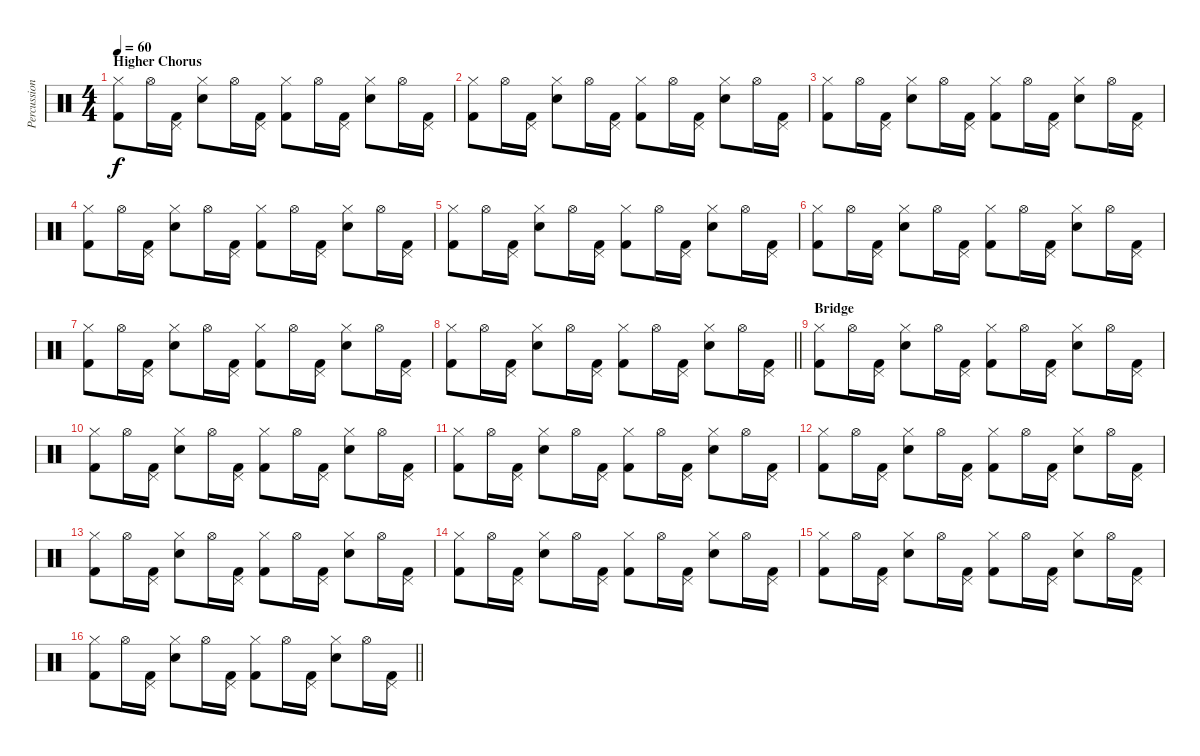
\track ("Percussion" "Percussion") {instrument percussion}
\staff {score}
\articulation defaults
\ts (4 4)
\section ("" "Higher Chorus")
\tempo 60
\clef neutral
\ks c
("Hi-Hat (closed)" "Kick (hit) 2").8{dy f} "Hi-Hat (open)".16 ("Pedal Hi-Hat (hit)" "Kick (hit) 2").16 ("Hi-Hat (closed)" "Electric Snare (hit)").8 "Hi-Hat (open)".16 ("Pedal Hi-Hat (hit)" "Kick (hit) 2").16 ("Hi-Hat (closed)" "Kick (hit) 2").8 "Hi-Hat (open)".16 ("Pedal Hi-Hat (hit)" "Kick (hit) 2").16 ("Hi-Hat (closed)" "Electric Snare (hit)").8 "Hi-Hat (open)".16 ("Pedal Hi-Hat (hit)" "Kick (hit) 2").16 |
("Hi-Hat (closed)" "Kick (hit) 2").8 "Hi-Hat (open)".16 ("Pedal Hi-Hat (hit)" "Kick (hit) 2").16 ("Hi-Hat (closed)" "Electric Snare (hit)").8 "Hi-Hat (open)".16 ("Pedal Hi-Hat (hit)" "Kick (hit) 2").16 ("Hi-Hat (closed)" "Kick (hit) 2").8 "Hi-Hat (open)".16 ("Pedal Hi-Hat (hit)" "Kick (hit) 2").16 ("Hi-Hat (closed)" "Electric Snare (hit)").8 "Hi-Hat (open)".16 ("Pedal Hi-Hat (hit)" "Kick (hit) 2").16 |
("Hi-Hat (closed)" "Kick (hit) 2").8 "Hi-Hat (open)".16 ("Pedal Hi-Hat (hit)" "Kick (hit) 2").16 ("Hi-Hat (closed)" "Electric Snare (hit)").8 "Hi-Hat (open)".16 ("Pedal Hi-Hat (hit)" "Kick (hit) 2").16 ("Hi-Hat (closed)" "Kick (hit) 2").8 "Hi-Hat (open)".16 ("Pedal Hi-Hat (hit)" "Kick (hit) 2").16 ("Hi-Hat (closed)" "Electric Snare (hit)").8 "Hi-Hat (open)".16 ("Pedal Hi-Hat (hit)" "Kick (hit) 2").16 |
("Hi-Hat (closed)" "Kick (hit) 2").8 "Hi-Hat (open)".16 ("Pedal Hi-Hat (hit)" "Kick (hit) 2").16 ("Hi-Hat (closed)" "Electric Snare (hit)").8 "Hi-Hat (open)".16 ("Pedal Hi-Hat (hit)" "Kick (hit) 2").16 ("Hi-Hat (closed)" "Kick (hit) 2").8 "Hi-Hat (open)".16 ("Pedal Hi-Hat (hit)" "Kick (hit) 2").16 ("Hi-Hat (closed)" "Electric Snare (hit)").8 "Hi-Hat (open)".16 ("Pedal Hi-Hat (hit)" "Kick (hit) 2").16 |
("Hi-Hat (closed)" "Kick (hit) 2").8 "Hi-Hat (open)".16 ("Pedal Hi-Hat (hit)" "Kick (hit) 2").16 ("Hi-Hat (closed)" "Electric Snare (hit)").8 "Hi-Hat (open)".16 ("Pedal Hi-Hat (hit)" "Kick (hit) 2").16 ("Hi-Hat (closed)" "Kick (hit) 2").8 "Hi-Hat (open)".16 ("Pedal Hi-Hat (hit)" "Kick (hit) 2").16 ("Hi-Hat (closed)" "Electric Snare (hit)").8 "Hi-Hat (open)".16 ("Pedal Hi-Hat (hit)" "Kick (hit) 2").16 |
("Hi-Hat (closed)" "Kick (hit) 2").8 "Hi-Hat (open)".16 ("Pedal Hi-Hat (hit)" "Kick (hit) 2").16 ("Hi-Hat (closed)" "Electric Snare (hit)").8 "Hi-Hat (open)".16 ("Pedal Hi-Hat (hit)" "Kick (hit) 2").16 ("Hi-Hat (closed)" "Kick (hit) 2").8 "Hi-Hat (open)".16 ("Pedal Hi-Hat (hit)" "Kick (hit) 2").16 ("Hi-Hat (closed)" "Electric Snare (hit)").8 "Hi-Hat (open)".16 ("Pedal Hi-Hat (hit)" "Kick (hit) 2").16 |
("Hi-Hat (closed)" "Kick (hit) 2").8 "Hi-Hat (open)".16 ("Pedal Hi-Hat (hit)" "Kick (hit) 2").16 ("Hi-Hat (closed)" "Electric Snare (hit)").8 "Hi-Hat (open)".16 ("Pedal Hi-Hat (hit)" "Kick (hit) 2").16 ("Hi-Hat (closed)" "Kick (hit) 2").8 "Hi-Hat (open)".16 ("Pedal Hi-Hat (hit)" "Kick (hit) 2").16 ("Hi-Hat (closed)" "Electric Snare (hit)").8 "Hi-Hat (open)".16 ("Pedal Hi-Hat (hit)" "Kick (hit) 2").16 |
\barLineRight lightlight
("Hi-Hat (closed)" "Kick (hit) 2").8 "Hi-Hat (open)".16 ("Pedal Hi-Hat (hit)" "Kick (hit) 2").16 ("Hi-Hat (closed)" "Electric Snare (hit)").8 "Hi-Hat (open)".16 ("Pedal Hi-Hat (hit)" "Kick (hit) 2").16 ("Hi-Hat (closed)" "Kick (hit) 2").8 "Hi-Hat (open)".16 ("Pedal Hi-Hat (hit)" "Kick (hit) 2").16 ("Hi-Hat (closed)" "Electric Snare (hit)").8 "Hi-Hat (open)".16 ("Pedal Hi-Hat (hit)" "Kick (hit) 2").16 |
\section ("" "Bridge")
("Hi-Hat (closed)" "Kick (hit) 2").8 "Hi-Hat (open)".16 ("Pedal Hi-Hat (hit)" "Kick (hit) 2").16 ("Hi-Hat (closed)" "Electric Snare (hit)").8 "Hi-Hat (open)".16 ("Pedal Hi-Hat (hit)" "Kick (hit) 2").16 ("Hi-Hat (closed)" "Kick (hit) 2").8 "Hi-Hat (open)".16 ("Pedal Hi-Hat (hit)" "Kick (hit) 2").16 ("Hi-Hat (closed)" "Electric Snare (hit)").8 "Hi-Hat (open)".16 ("Pedal Hi-Hat (hit)" "Kick (hit) 2").16 |
("Hi-Hat (closed)" "Kick (hit) 2").8 "Hi-Hat (open)".16 ("Pedal Hi-Hat (hit)" "Kick (hit) 2").16 ("Hi-Hat (closed)" "Electric Snare (hit)").8 "Hi-Hat (open)".16 ("Pedal Hi-Hat (hit)" "Kick (hit) 2").16 ("Hi-Hat (closed)" "Kick (hit) 2").8 "Hi-Hat (open)".16 ("Pedal Hi-Hat (hit)" "Kick (hit) 2").16 ("Hi-Hat (closed)" "Electric Snare (hit)").8 "Hi-Hat (open)".16 ("Pedal Hi-Hat (hit)" "Kick (hit) 2").16 |
("Hi-Hat (closed)" "Kick (hit) 2").8 "Hi-Hat (open)".16 ("Pedal Hi-Hat (hit)" "Kick (hit) 2").16 ("Hi-Hat (closed)" "Electric Snare (hit)").8 "Hi-Hat (open)".16 ("Pedal Hi-Hat (hit)" "Kick (hit) 2").16 ("Hi-Hat (closed)" "Kick (hit) 2").8 "Hi-Hat (open)".16 ("Pedal Hi-Hat (hit)" "Kick (hit) 2").16 ("Hi-Hat (closed)" "Electric Snare (hit)").8 "Hi-Hat (open)".16 ("Pedal Hi-Hat (hit)" "Kick (hit) 2").16 |
("Hi-Hat (closed)" "Kick (hit) 2").8 "Hi-Hat (open)".16 ("Pedal Hi-Hat (hit)" "Kick (hit) 2").16 ("Hi-Hat (closed)" "Electric Snare (hit)").8 "Hi-Hat (open)".16 ("Pedal Hi-Hat (hit)" "Kick (hit) 2").16 ("Hi-Hat (closed)" "Kick (hit) 2").8 "Hi-Hat (open)".16 ("Pedal Hi-Hat (hit)" "Kick (hit) 2").16 ("Hi-Hat (closed)" "Electric Snare (hit)").8 "Hi-Hat (open)".16 ("Pedal Hi-Hat (hit)" "Kick (hit) 2").16 |
("Hi-Hat (closed)" "Kick (hit) 2").8 "Hi-Hat (open)".16 ("Pedal Hi-Hat (hit)" "Kick (hit) 2").16 ("Hi-Hat (closed)" "Electric Snare (hit)").8 "Hi-Hat (open)".16 ("Pedal Hi-Hat (hit)" "Kick (hit) 2").16 ("Hi-Hat (closed)" "Kick (hit) 2").8 "Hi-Hat (open)".16 ("Pedal Hi-Hat (hit)" "Kick (hit) 2").16 ("Hi-Hat (closed)" "Electric Snare (hit)").8 "Hi-Hat (open)".16 ("Pedal Hi-Hat (hit)" "Kick (hit) 2").16 |
("Hi-Hat (closed)" "Kick (hit) 2").8 "Hi-Hat (open)".16 ("Pedal Hi-Hat (hit)" "Kick (hit) 2").16 ("Hi-Hat (closed)" "Electric Snare (hit)").8 "Hi-Hat (open)".16 ("Pedal Hi-Hat (hit)" "Kick (hit) 2").16 ("Hi-Hat (closed)" "Kick (hit) 2").8 "Hi-Hat (open)".16 ("Pedal Hi-Hat (hit)" "Kick (hit) 2").16 ("Hi-Hat (closed)" "Electric Snare (hit)").8 "Hi-Hat (open)".16 ("Pedal Hi-Hat (hit)" "Kick (hit) 2").16 |
("Hi-Hat (closed)" "Kick (hit) 2").8 "Hi-Hat (open)".16 ("Pedal Hi-Hat (hit)" "Kick (hit) 2").16 ("Hi-Hat (closed)" "Electric Snare (hit)").8 "Hi-Hat (open)".16 ("Pedal Hi-Hat (hit)" "Kick (hit) 2").16 ("Hi-Hat (closed)" "Kick (hit) 2").8 "Hi-Hat (open)".16 ("Pedal Hi-Hat (hit)" "Kick (hit) 2").16 ("Hi-Hat (closed)" "Electric Snare (hit)").8 "Hi-Hat (open)".16 ("Pedal Hi-Hat (hit)" "Kick (hit) 2").16 |
\barLineRight lightlight
("Hi-Hat (closed)" "Kick (hit) 2").8 "Hi-Hat (open)".16 ("Pedal Hi-Hat (hit)" "Kick (hit) 2").16 ("Hi-Hat (closed)" "Electric Snare (hit)").8 "Hi-Hat (open)".16 ("Pedal Hi-Hat (hit)" "Kick (hit) 2").16 ("Hi-Hat (closed)" "Kick (hit) 2").8 "Hi-Hat (open)".16 ("Pedal Hi-Hat (hit)" "Kick (hit) 2").16 ("Hi-Hat (closed)" "Electric Snare (hit)").8 "Hi-Hat (open)".16 ("Pedal Hi-Hat (hit)" "Kick (hit) 2").16
